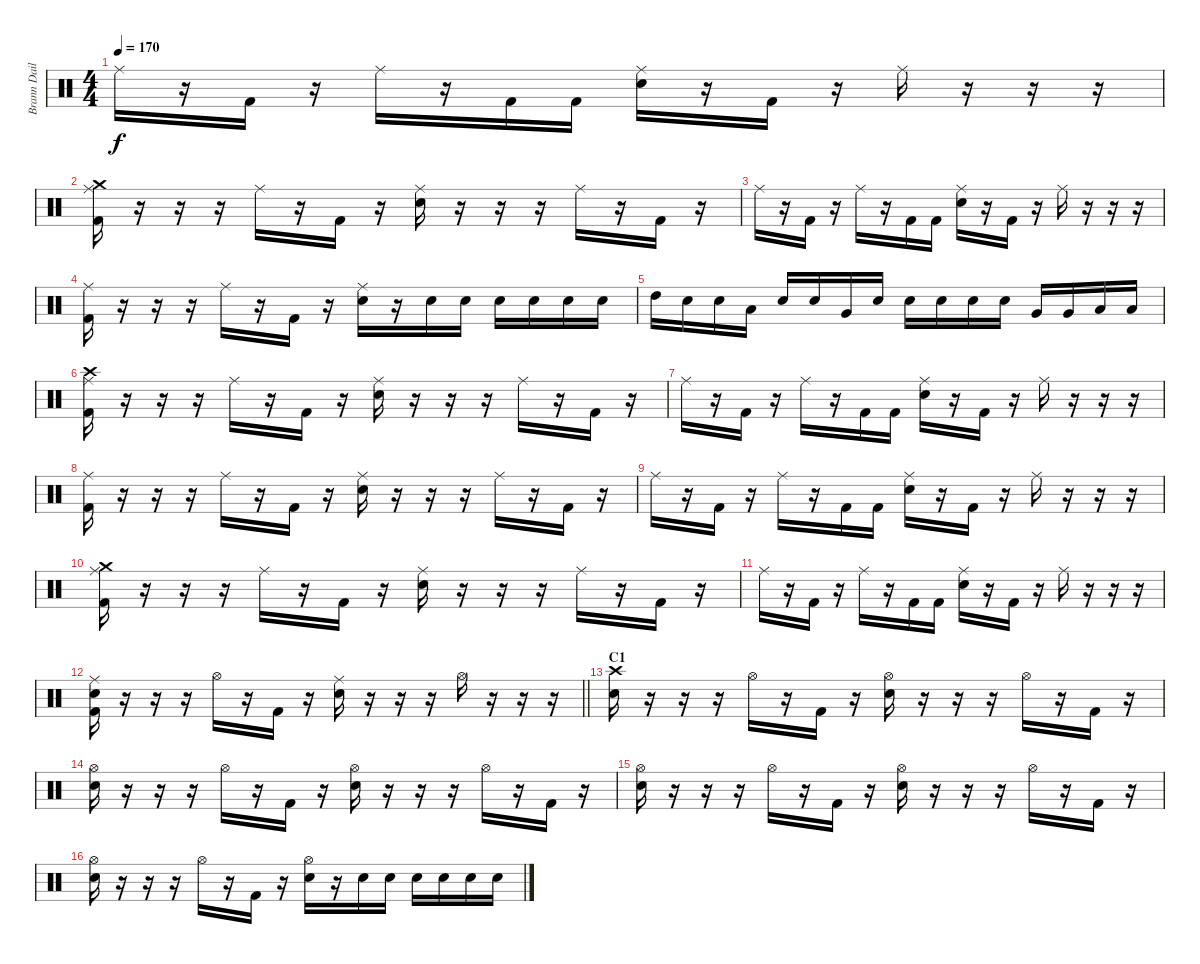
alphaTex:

\track ("Brann Dailor" "Brann Dail") {instrument percussion}
\staff {score}
\articulation defaults
\ts (4 4)
\tempo 170
\clef neutral
\ks c "Ride (middle)".16{dy f}
r.16 "Kick (hit) 2".16 r.16 "Ride (middle)".16 r.16 "Kick (hit) 2".16 "Kick (hit) 2".16 ("Ride (middle)" "Electric Snare (hit)").16 r.16 "Kick (hit) 2".16 r.16 "Ride (middle)".16 r.16 r.16 r.16 |
("Crash medium (hit)" "Ride (middle)" "Kick (hit) 2").16 r.16 r.16 r.16 "Ride (middle)".16 r.16 "Kick (hit) 2".16 r.16 ("Ride (middle)" "Electric Snare (hit)").16 r.16 r.16 r.16 "Ride (middle)".16 r.16 "Kick (hit) 2".16 r.16 |
"Ride (middle)".16 r.16 "Kick (hit) 2".16 r.16 "Ride (middle)".16 r.16 "Kick (hit) 2".16 "Kick (hit) 2".16 ("Ride (middle)" "Electric Snare (hit)").16 r.16 "Kick (hit) 2".16 r.16 "Ride (middle)".16 r.16 r.16 r.16 |
("Ride (middle)" "Kick (hit) 2").16 r.16 r.16 r.16 "Ride (middle)".16 r.16 "Kick (hit) 2".16 r.16 ("Ride (middle)" "Electric Snare (hit)").16 r.16 "Electric Snare (hit)".16 "Electric Snare (hit)".16 "Electric Snare (hit)".16 "Electric Snare (hit)".16 "Electric Snare (hit)".16 "Electric Snare (hit)".16 |
"High Tom (hit)".16 "Electric Snare (hit)".16 "Electric Snare (hit)".16 "Low Tom (hit)".16 "Electric Snare (hit)".16 "Electric Snare (hit)".16 "Very Low Tom (hit)".16 "Electric Snare (hit)".16 "Electric Snare (hit)".16 "Electric Snare (hit)".16 "Electric Snare (hit)".16 "Electric Snare (hit)".16 "Very Low Tom (hit)".16 "Very Low Tom (hit)".16 "Low Floor Tom (hit)".16 "Low Floor Tom (hit)".16 |
("Crash high (hit)" "Ride (middle)" "Kick (hit) 2").16 r.16 r.16 r.16 "Ride (middle)".16 r.16 "Kick (hit) 2".16 r.16 ("Ride (middle)" "Electric Snare (hit)").16 r.16 r.16 r.16 "Ride (middle)".16 r.16 "Kick (hit) 2".16 r.16 |
"Ride (middle)".16 r.16 "Kick (hit) 2".16 r.16 "Ride (middle)".16 r.16 "Kick (hit) 2".16 "Kick (hit) 2".16 ("Ride (middle)" "Electric Snare (hit)").16 r.16 "Kick (hit) 2".16 r.16 "Ride (middle)".16 r.16 r.16 r.16 |
("Ride (middle)" "Kick (hit) 2").16 r.16 r.16 r.16 "Ride (middle)".16 r.16 "Kick (hit) 2".16 r.16 ("Ride (middle)" "Electric Snare (hit)").16 r.16 r.16 r.16 "Ride (middle)".16 r.16 "Kick (hit) 2".16 r.16 |
"Ride (middle)".16 r.16 "Kick (hit) 2".16 r.16 "Ride (middle)".16 r.16 "Kick (hit) 2".16 "Kick (hit) 2".16 ("Ride (middle)" "Electric Snare (hit)").16 r.16 "Kick (hit) 2".16 r.16 "Ride (middle)".16 r.16 r.16 r.16 |
("Crash medium (hit)" "Ride (middle)" "Kick (hit) 2").16 r.16 r.16 r.16 "Ride (middle)".16 r.16 "Kick (hit) 2".16 r.16 ("Ride (middle)" "Electric Snare (hit)").16 r.16 r.16 r.16 "Ride (middle)".16 r.16 "Kick (hit) 2".16 r.16 |
"Ride (middle)".16 r.16 "Kick (hit) 2".16 r.16 "Ride (middle)".16 r.16 "Kick (hit) 2".16 "Kick (hit) 2".16 ("Ride (middle)" "Electric Snare (hit)").16 r.16 "Kick (hit) 2".16 r.16 "Ride (middle)".16 r.16 r.16 r.16 |
\barLineRight lightlight
("Ride (middle)" "Electric Snare (hit)" "Kick (hit) 2").16 r.16 r.16 r.16 "Hi-Hat (open)".16 r.16 "Kick (hit) 2".16 r.16 ("Ride (middle)" "Electric Snare (hit)").16 r.16 r.16 r.16 "Hi-Hat (open)".16 r.16 r.16 r.16 |
\section ("" "C1")
("Crash high (hit)" "Electric Snare (hit)").16 r.16 r.16 r.16 "Hi-Hat (open)".16 r.16 "Kick (hit) 2".16 r.16 ("Hi-Hat (open)" "Electric Snare (hit)").16 r.16 r.16 r.16 "Hi-Hat (open)".16 r.16 "Kick (hit) 2".16 r.16 |
("Hi-Hat (open)" "Electric Snare (hit)").16 r.16 r.16 r.16 "Hi-Hat (open)".16 r.16 "Kick (hit) 2".16 r.16 ("Hi-Hat (open)" "Electric Snare (hit)").16 r.16 r.16 r.16 "Hi-Hat (open)".16 r.16 "Kick (hit) 2".16 r.16 |
("Hi-Hat (open)" "Electric Snare (hit)").16 r.16 r.16 r.16 "Hi-Hat (open)".16 r.16 "Kick (hit) 2".16 r.16 ("Hi-Hat (open)" "Electric Snare (hit)").16 r.16 r.16 r.16 "Hi-Hat (open)".16 r.16 "Kick (hit) 2".16 r.16 |
("Hi-Hat (open)" "Electric Snare (hit)").16 r.16 r.16 r.16 "Hi-Hat (open)".16 r.16 "Kick (hit) 2".16 r.16 ("Hi-Hat (open)" "Electric Snare (hit)").16 r.16 "Electric Snare (hit)".16 "Electric Snare (hit)".16 "Electric Snare (hit)".16 "Electric Snare (hit)".16 "Electric Snare (hit)".16 "Electric Snare (hit)".16
